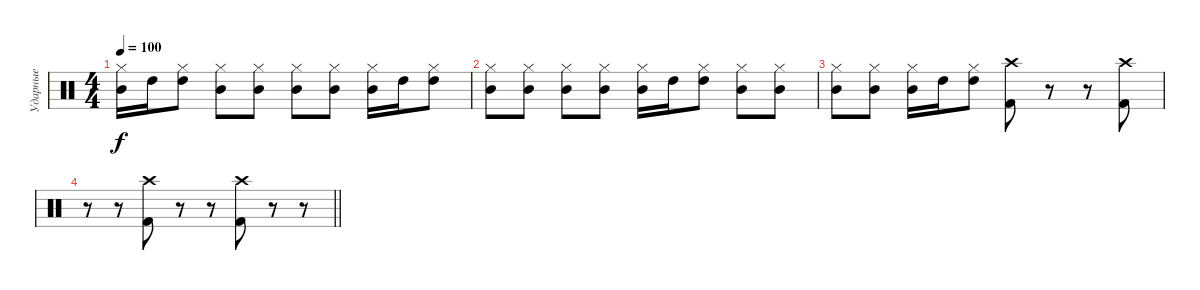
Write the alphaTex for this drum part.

\track ("Ударные" "Ударные") {instrument percussion}
\staff {score}
\articulation defaults
\ts (4 4)
\tempo 100
\clef neutral
\ks c
("Mid Tom (hit)" "Hi-Hat (closed)").16{dy f} "High Tom (hit)".16 ("High Tom (hit)" "Hi-Hat (closed)").8 ("Mid Tom (hit)" "Hi-Hat (closed)").8 ("Mid Tom (hit)" "Hi-Hat (closed)").8 ("Mid Tom (hit)" "Hi-Hat (closed)").8 ("Mid Tom (hit)" "Hi-Hat (closed)").8 ("Mid Tom (hit)" "Hi-Hat (closed)").16 "High Tom (hit)".16 ("High Tom (hit)" "Hi-Hat (closed)").8 |
("Mid Tom (hit)" "Hi-Hat (closed)").8 ("Mid Tom (hit)" "Hi-Hat (closed)").8 ("Mid Tom (hit)" "Hi-Hat (closed)").8 ("Mid Tom (hit)" "Hi-Hat (closed)").8 ("Mid Tom (hit)" "Hi-Hat (closed)").16 "High Tom (hit)".16 ("High Tom (hit)" "Hi-Hat (closed)").8 ("Mid Tom (hit)" "Hi-Hat (closed)").8 ("Mid Tom (hit)" "Hi-Hat (closed)").8 |
("Mid Tom (hit)" "Hi-Hat (closed)").8 ("Mid Tom (hit)" "Hi-Hat (closed)").8 ("Mid Tom (hit)" "Hi-Hat (closed)").16 "High Tom (hit)".16 ("High Tom (hit)" "Hi-Hat (closed)").8 ("Kick (hit) 2" "Crash high (hit)").8 r.8 r.8 ("Kick (hit) 2" "Crash high (hit)").8 |
\barLineRight lightlight
r.8 r.8 ("Kick (hit) 2" "Crash high (hit)").8 r.8 r.8 ("Kick (hit) 2" "Crash high (hit)").8 r.8 r.8
